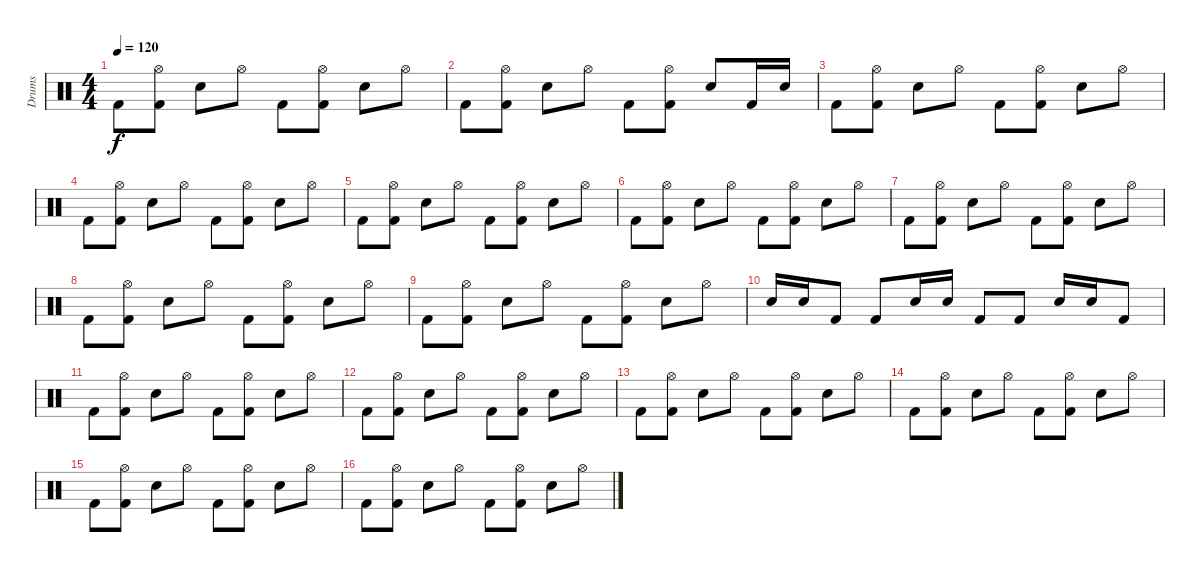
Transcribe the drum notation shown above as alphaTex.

\track ("Drums" "Drums") {instrument percussion}
\staff {score}
\articulation defaults
\ts (4 4)
\tempo 120
\clef neutral
\ks c "Kick (hit) 2".8{dy f}
("Hi-Hat (open)" "Kick (hit) 2").8 "Electric Snare (hit)".8 "Hi-Hat (open)".8 "Kick (hit) 2".8 ("Hi-Hat (open)" "Kick (hit) 2").8 "Electric Snare (hit)".8 "Hi-Hat (open)".8 |
"Kick (hit) 2".8 ("Hi-Hat (open)" "Kick (hit) 2").8 "Electric Snare (hit)".8 "Hi-Hat (open)".8 "Kick (hit) 2".8 ("Hi-Hat (open)" "Kick (hit) 2").8 "Electric Snare (hit)".8 "Kick (hit) 2".16 "Electric Snare (hit)".16 |
"Kick (hit) 2".8 ("Hi-Hat (open)" "Kick (hit) 2").8 "Electric Snare (hit)".8 "Hi-Hat (open)".8 "Kick (hit) 2".8 ("Hi-Hat (open)" "Kick (hit) 2").8 "Electric Snare (hit)".8 "Hi-Hat (open)".8 |
"Kick (hit) 2".8 ("Hi-Hat (open)" "Kick (hit) 2").8 "Electric Snare (hit)".8 "Hi-Hat (open)".8 "Kick (hit) 2".8 ("Hi-Hat (open)" "Kick (hit) 2").8 "Electric Snare (hit)".8 "Hi-Hat (open)".8 |
"Kick (hit) 2".8 ("Hi-Hat (open)" "Kick (hit) 2").8 "Electric Snare (hit)".8 "Hi-Hat (open)".8 "Kick (hit) 2".8 ("Hi-Hat (open)" "Kick (hit) 2").8 "Electric Snare (hit)".8 "Hi-Hat (open)".8 |
"Kick (hit) 2".8 ("Hi-Hat (open)" "Kick (hit) 2").8 "Electric Snare (hit)".8 "Hi-Hat (open)".8 "Kick (hit) 2".8 ("Hi-Hat (open)" "Kick (hit) 2").8 "Electric Snare (hit)".8 "Hi-Hat (open)".8 |
"Kick (hit) 2".8 ("Hi-Hat (open)" "Kick (hit) 2").8 "Electric Snare (hit)".8 "Hi-Hat (open)".8 "Kick (hit) 2".8 ("Hi-Hat (open)" "Kick (hit) 2").8 "Electric Snare (hit)".8 "Hi-Hat (open)".8 |
"Kick (hit) 2".8 ("Hi-Hat (open)" "Kick (hit) 2").8 "Electric Snare (hit)".8 "Hi-Hat (open)".8 "Kick (hit) 2".8 ("Hi-Hat (open)" "Kick (hit) 2").8 "Electric Snare (hit)".8 "Hi-Hat (open)".8 |
"Kick (hit) 2".8 ("Hi-Hat (open)" "Kick (hit) 2").8 "Electric Snare (hit)".8 "Hi-Hat (open)".8 "Kick (hit) 2".8 ("Hi-Hat (open)" "Kick (hit) 2").8 "Electric Snare (hit)".8 "Hi-Hat (open)".8 |
"Electric Snare (hit)".16 "Electric Snare (hit)".16 "Kick (hit) 2".8 "Kick (hit) 2".8 "Electric Snare (hit)".16 "Electric Snare (hit)".16 "Kick (hit) 2".8 "Kick (hit) 2".8 "Electric Snare (hit)".16 "Electric Snare (hit)".16 "Kick (hit) 2".8 |
"Kick (hit) 2".8 ("Hi-Hat (open)" "Kick (hit) 2").8 "Electric Snare (hit)".8 "Hi-Hat (open)".8 "Kick (hit) 2".8 ("Hi-Hat (open)" "Kick (hit) 2").8 "Electric Snare (hit)".8 "Hi-Hat (open)".8 |
"Kick (hit) 2".8 ("Hi-Hat (open)" "Kick (hit) 2").8 "Electric Snare (hit)".8 "Hi-Hat (open)".8 "Kick (hit) 2".8 ("Hi-Hat (open)" "Kick (hit) 2").8 "Electric Snare (hit)".8 "Hi-Hat (open)".8 |
"Kick (hit) 2".8 ("Hi-Hat (open)" "Kick (hit) 2").8 "Electric Snare (hit)".8 "Hi-Hat (open)".8 "Kick (hit) 2".8 ("Hi-Hat (open)" "Kick (hit) 2").8 "Electric Snare (hit)".8 "Hi-Hat (open)".8 |
"Kick (hit) 2".8 ("Hi-Hat (open)" "Kick (hit) 2").8 "Electric Snare (hit)".8 "Hi-Hat (open)".8 "Kick (hit) 2".8 ("Hi-Hat (open)" "Kick (hit) 2").8 "Electric Snare (hit)".8 "Hi-Hat (open)".8 |
"Kick (hit) 2".8 ("Hi-Hat (open)" "Kick (hit) 2").8 "Electric Snare (hit)".8 "Hi-Hat (open)".8 "Kick (hit) 2".8 ("Hi-Hat (open)" "Kick (hit) 2").8 "Electric Snare (hit)".8 "Hi-Hat (open)".8 |
"Kick (hit) 2".8 ("Hi-Hat (open)" "Kick (hit) 2").8 "Electric Snare (hit)".8 "Hi-Hat (open)".8 "Kick (hit) 2".8 ("Hi-Hat (open)" "Kick (hit) 2").8 "Electric Snare (hit)".8 "Hi-Hat (open)".8
